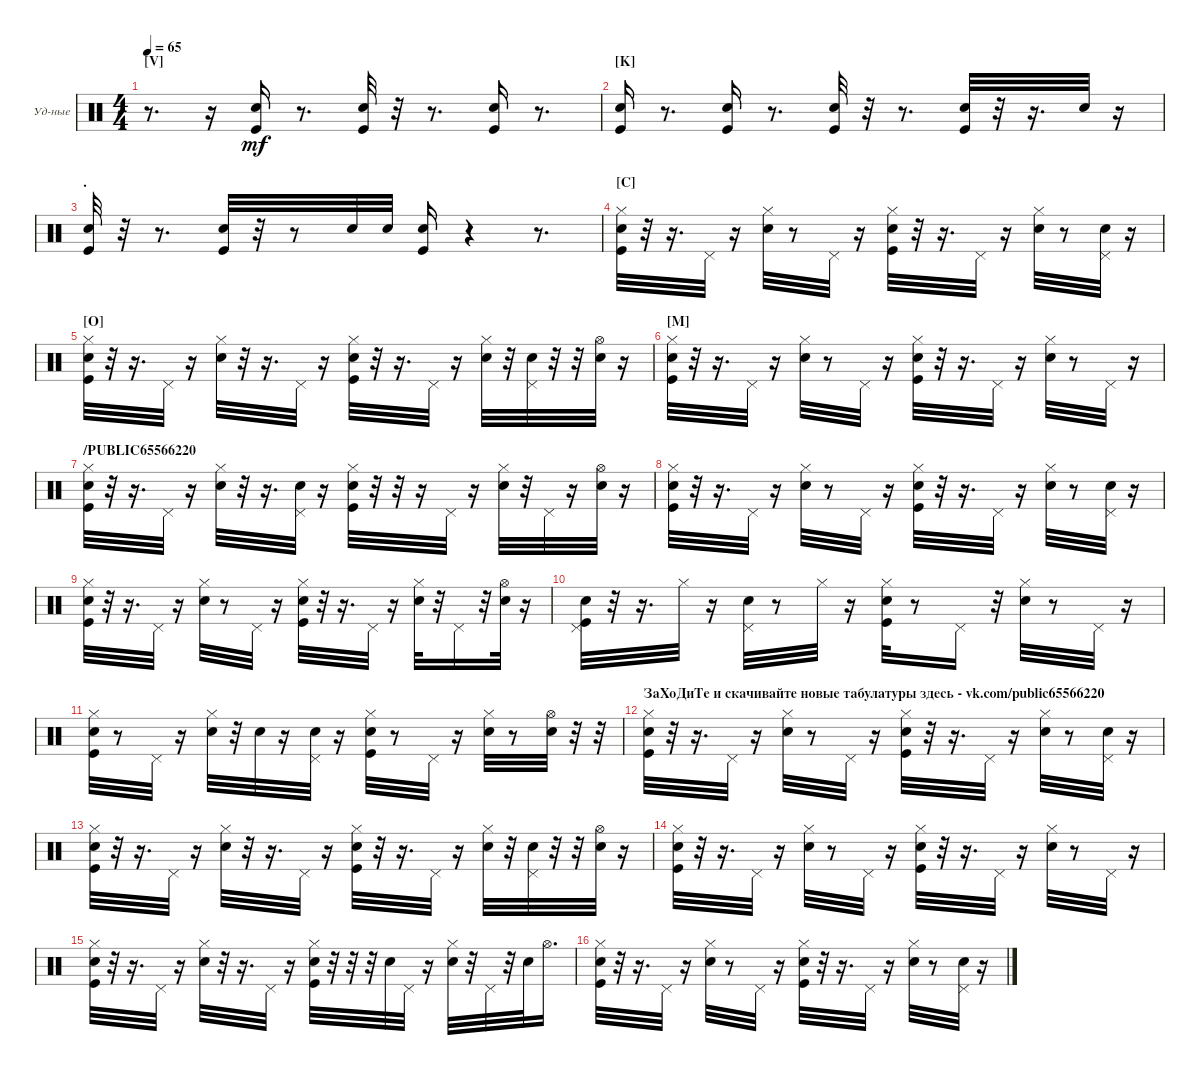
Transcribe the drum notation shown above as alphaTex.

\bracketExtendMode groupsimilarinstruments
\firstSystemTrackNameOrientation horizontal
\otherSystemsTrackNameOrientation horizontal
\track ("Ударные" "Уд-ные") {instrument percussion}
\staff {score}
\articulation defaults
\ts (4 4)
\section ("V" "")
\tempo 65
\clef neutral
\ks c
r.8{d dy mf} r.16 ("Kick (hit)" "Snare (hit) 2").16 r.8{d} ("Kick (hit)" "Snare (hit) 2").32 r.32 r.8{d} ("Kick (hit)" "Snare (hit) 2").16 r.8{d} |
\section ("K" "")
("Kick (hit)" "Snare (hit) 2").16 r.8{d} ("Kick (hit)" "Snare (hit) 2").16 r.8{d} ("Kick (hit)" "Snare (hit) 2").32 r.32 r.8{d} ("Kick (hit)" "Snare (hit) 2").32 r.32 r.16{d} "Snare (hit) 2".32 r.16 |
\section ("" ".")
("Kick (hit)" "Snare (hit) 2").32 r.32 r.8{d} ("Kick (hit)" "Snare (hit) 2").32 r.32 r.8 "Snare (hit) 2".32 "Snare (hit) 2".32 ("Kick (hit)" "Snare (hit) 2").16 r.4 r.8{d} |
\section ("C" "")
("Hi-Hat (closed)" "Kick (hit)" "Snare (hit) 2").32 r.32 r.16{d} "Pedal Hi-Hat (hit)".32 r.16 ("Hi-Hat (closed)" "Snare (hit) 2").32 r.8 "Pedal Hi-Hat (hit)".32 r.16 ("Kick (hit)" "Hi-Hat (closed)" "Snare (hit) 2").32 r.32 r.16{d} "Pedal Hi-Hat (hit)".32 r.16 ("Hi-Hat (closed)" "Snare (hit) 2").32 r.8 ("Pedal Hi-Hat (hit)" "Snare (hit) 2").32 r.16 |
\section ("O" "")
("Kick (hit)" "Hi-Hat (closed)" "Snare (hit) 2").32 r.32 r.16{d} "Pedal Hi-Hat (hit)".32 r.16 ("Hi-Hat (closed)" "Snare (hit) 2").32 r.32 r.16{d} "Pedal Hi-Hat (hit)".32 r.16 ("Kick (hit)" "Hi-Hat (closed)" "Snare (hit) 2").32 r.32 r.16{d} "Pedal Hi-Hat (hit)".32 r.16 ("Hi-Hat (closed)" "Snare (hit) 2").32 r.32 ("Pedal Hi-Hat (hit)" "Snare (hit) 2").32 r.32 r.32 ("Hi-Hat (open)" "Snare (hit) 2").32 r.16 |
\section ("M" "")
("Kick (hit)" "Hi-Hat (closed)" "Snare (hit) 2").32 r.32 r.16{d} "Pedal Hi-Hat (hit)".32 r.16 ("Hi-Hat (closed)" "Snare (hit) 2").32 r.8 "Pedal Hi-Hat (hit)".32 r.16 ("Kick (hit)" "Hi-Hat (closed)" "Snare (hit) 2").32 r.32 r.16{d} "Pedal Hi-Hat (hit)".32 r.16 ("Hi-Hat (closed)" "Snare (hit) 2").32 r.8 "Pedal Hi-Hat (hit)".32 r.16 |
\section ("" "/PUBLIC65566220")
("Kick (hit)" "Hi-Hat (closed)" "Snare (hit) 2").32 r.32 r.16{d} "Pedal Hi-Hat (hit)".32 r.16 ("Hi-Hat (closed)" "Snare (hit) 2").32 r.32 r.16{d} ("Pedal Hi-Hat (hit)" "Snare (hit) 2").32 r.16 ("Hi-Hat (closed)" "Kick (hit)" "Snare (hit) 2").32 r.32 r.32 r.16 "Pedal Hi-Hat (hit)".32 r.16 ("Hi-Hat (closed)" "Snare (hit) 2").32 r.32 "Pedal Hi-Hat (hit)".32 r.16 ("Hi-Hat (open)" "Snare (hit) 2").32 r.16 |
("Kick (hit)" "Hi-Hat (closed)" "Snare (hit) 2").32 r.32 r.16{d} "Pedal Hi-Hat (hit)".32 r.16 ("Hi-Hat (closed)" "Snare (hit) 2").32 r.8 "Pedal Hi-Hat (hit)".32 r.16 ("Hi-Hat (closed)" "Kick (hit)" "Snare (hit) 2").32 r.32 r.16{d} "Pedal Hi-Hat (hit)".32 r.16 ("Hi-Hat (closed)" "Snare (hit) 2").32 r.8 ("Pedal Hi-Hat (hit)" "Snare (hit) 2").32 r.16 |
("Kick (hit)" "Hi-Hat (closed)" "Snare (hit) 2").32 r.32 r.16{d} "Pedal Hi-Hat (hit)".32 r.16 ("Hi-Hat (closed)" "Snare (hit) 2").32 r.8 "Pedal Hi-Hat (hit)".32 r.16 ("Kick (hit)" "Hi-Hat (closed)" "Snare (hit) 2").32 r.32 r.16{d} "Pedal Hi-Hat (hit)".32 r.16 ("Hi-Hat (closed)" "Snare (hit) 2").32 r.32 "Pedal Hi-Hat (hit)".16 r.32 ("Hi-Hat (open)" "Snare (hit) 2").32 r.16 |
("Kick (hit)" "Pedal Hi-Hat (hit)" "Snare (hit) 2").32 r.32 r.16{d} "Hi-Hat (closed)".32 r.16 ("Pedal Hi-Hat (hit)" "Snare (hit) 2").32 r.8 "Hi-Hat (closed)".32 r.16 ("Hi-Hat (closed)" "Kick (hit)" "Snare (hit) 2").32 r.8 "Pedal Hi-Hat (hit)".16 r.32 ("Hi-Hat (closed)" "Snare (hit) 2").32 r.8 "Pedal Hi-Hat (hit)".32 r.16 |
("Kick (hit)" "Hi-Hat (closed)" "Snare (hit) 2").32 r.8 "Pedal Hi-Hat (hit)".32 r.16 ("Hi-Hat (closed)" "Snare (hit) 2").32 r.32 "Snare (hit) 2".32 r.16 ("Pedal Hi-Hat (hit)" "Snare (hit) 2").32 r.16 ("Kick (hit)" "Hi-Hat (closed)" "Snare (hit) 2").32 r.8 "Pedal Hi-Hat (hit)".32 r.16 ("Hi-Hat (closed)" "Snare (hit) 2").32 r.8 ("Hi-Hat (open)" "Snare (hit) 2").32 r.32 r.32 |
\section ("" "ЗаХоДиТе и скачивайте новые табулатуры здесь - vk.com/public65566220")
("Hi-Hat (closed)" "Kick (hit)" "Snare (hit) 2").32 r.32 r.16{d} "Pedal Hi-Hat (hit)".32 r.16 ("Hi-Hat (closed)" "Snare (hit) 2").32 r.8 "Pedal Hi-Hat (hit)".32 r.16 ("Kick (hit)" "Hi-Hat (closed)" "Snare (hit) 2").32 r.32 r.16{d} "Pedal Hi-Hat (hit)".32 r.16 ("Hi-Hat (closed)" "Snare (hit) 2").32 r.8 ("Pedal Hi-Hat (hit)" "Snare (hit) 2").32 r.16 |
("Kick (hit)" "Hi-Hat (closed)" "Snare (hit) 2").32 r.32 r.16{d} "Pedal Hi-Hat (hit)".32 r.16 ("Hi-Hat (closed)" "Snare (hit) 2").32 r.32 r.16{d} "Pedal Hi-Hat (hit)".32 r.16 ("Kick (hit)" "Hi-Hat (closed)" "Snare (hit) 2").32 r.32 r.16{d} "Pedal Hi-Hat (hit)".32 r.16 ("Hi-Hat (closed)" "Snare (hit) 2").32 r.32 ("Pedal Hi-Hat (hit)" "Snare (hit) 2").32 r.32 r.32 ("Hi-Hat (open)" "Snare (hit) 2").32 r.16 |
("Kick (hit)" "Hi-Hat (closed)" "Snare (hit) 2").32 r.32 r.16{d} "Pedal Hi-Hat (hit)".32 r.16 ("Hi-Hat (closed)" "Snare (hit) 2").32 r.8 "Pedal Hi-Hat (hit)".32 r.16 ("Kick (hit)" "Hi-Hat (closed)" "Snare (hit) 2").32 r.32 r.16{d} "Pedal Hi-Hat (hit)".32 r.16 ("Hi-Hat (closed)" "Snare (hit) 2").32 r.8 "Pedal Hi-Hat (hit)".32 r.16 |
("Kick (hit)" "Hi-Hat (closed)" "Snare (hit) 2").32 r.32 r.16{d} "Pedal Hi-Hat (hit)".32 r.16 ("Hi-Hat (closed)" "Snare (hit) 2").32 r.32 r.16{d} "Pedal Hi-Hat (hit)".32 r.16 ("Hi-Hat (closed)" "Kick (hit)" "Snare (hit) 2").32 r.32 r.32 r.32 "Snare (hit) 2".32 "Pedal Hi-Hat (hit)".32 r.16 ("Hi-Hat (closed)" "Snare (hit) 2").32 r.32 "Pedal Hi-Hat (hit)".32 r.32 "Snare (hit) 2".32 "Hi-Hat (open)".16{d} |
("Kick (hit)" "Hi-Hat (closed)" "Snare (hit) 2").32 r.32 r.16{d} "Pedal Hi-Hat (hit)".32 r.16 ("Hi-Hat (closed)" "Snare (hit) 2").32 r.8 "Pedal Hi-Hat (hit)".32 r.16 ("Hi-Hat (closed)" "Kick (hit)" "Snare (hit) 2").32 r.32 r.16{d} "Pedal Hi-Hat (hit)".32 r.16 ("Hi-Hat (closed)" "Snare (hit) 2").32 r.8 ("Pedal Hi-Hat (hit)" "Snare (hit) 2").32 r.16
